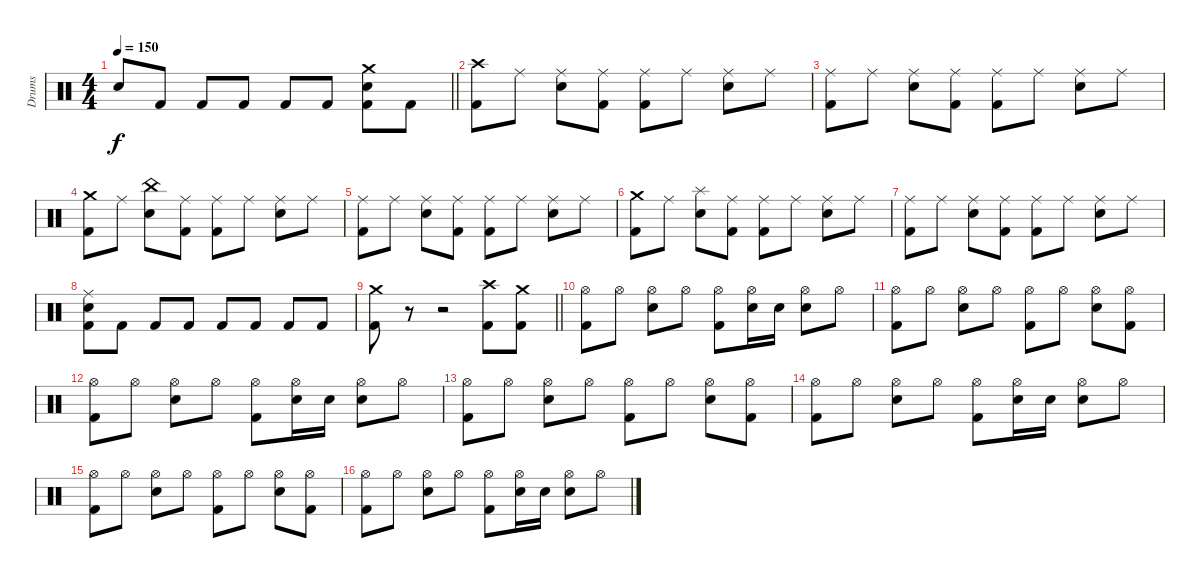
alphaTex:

\track ("Drums" "Drums") {instrument percussion}
\staff {score}
\articulation defaults
\ts (4 4)
\tempo 150
\clef neutral
\barLineRight lightlight
\ks c "Snare (hit) 2".8{dy f} "Kick (hit) 2".8 "Kick (hit) 2".8 "Kick (hit) 2".8 "Kick (hit) 2".8 "Kick (hit) 2".8
("Crash medium (hit)" "Snare (hit) 2" "Kick (hit) 2").8 "Kick (hit) 2".8 |
("Crash high (hit)" "Kick (hit) 2").8 "Ride (middle)".8 ("Ride (middle)" "Snare (hit) 2").8 ("Ride (middle)" "Kick (hit) 2").8 ("Ride (middle)" "Kick (hit) 2").8 "Ride (middle)".8 ("Ride (middle)" "Snare (hit) 2").8 "Ride (middle)".8 |
("Ride (middle)" "Kick (hit) 2").8 "Ride (middle)".8 ("Ride (middle)" "Snare (hit) 2").8 ("Ride (middle)" "Kick (hit) 2").8 ("Ride (middle)" "Kick (hit) 2").8 "Ride (middle)".8 ("Ride (middle)" "Snare (hit) 2").8 "Ride (middle)".8 |
("Crash medium (hit)" "Kick (hit) 2").8 "Ride (middle)".8 ("China (hit)" "Snare (hit) 2").8 ("Ride (middle)" "Kick (hit) 2").8 ("Ride (middle)" "Kick (hit) 2").8 "Ride (middle)".8 ("Ride (middle)" "Snare (hit) 2").8 "Ride (middle)".8 |
("Ride (middle)" "Kick (hit) 2").8 "Ride (middle)".8 ("Ride (middle)" "Snare (hit) 2").8 ("Ride (middle)" "Kick (hit) 2").8 ("Ride (middle)" "Kick (hit) 2").8 "Ride (middle)".8 ("Ride (middle)" "Snare (hit) 2").8 "Ride (middle)".8 |
("Crash medium (hit)" "Kick (hit) 2").8 "Ride (middle)".8 ("Splash (hit)" "Snare (hit) 2").8 ("Ride (middle)" "Kick (hit) 2").8 ("Ride (middle)" "Kick (hit) 2").8 "Ride (middle)".8 ("Ride (middle)" "Snare (hit) 2").8 "Ride (middle)".8 |
("Ride (middle)" "Kick (hit) 2").8 "Ride (middle)".8 ("Ride (middle)" "Snare (hit) 2").8 ("Ride (middle)" "Kick (hit) 2").8 ("Ride (middle)" "Kick (hit) 2").8 "Ride (middle)".8 ("Ride (middle)" "Snare (hit) 2").8 "Ride (middle)".8 |
("Ride (middle)" "Snare (hit) 2" "Kick (hit) 2").8 "Kick (hit) 2".8 "Kick (hit) 2".8 "Kick (hit) 2".8 "Kick (hit) 2".8 "Kick (hit) 2".8 "Kick (hit) 2".8 "Kick (hit) 2".8 |
\barLineRight lightlight
("Crash medium (hit)" "Kick (hit) 2").8 r.8 r.2 ("Crash high (hit)" "Kick (hit) 2").8 ("Crash medium (hit)" "Kick (hit) 2").8 |
("Hi-Hat (open)" "Kick (hit) 2").8 "Hi-Hat (open)".8 ("Hi-Hat (open)" "Snare (hit) 2").8 "Hi-Hat (open)".8 ("Hi-Hat (open)" "Kick (hit) 2").8 ("Hi-Hat (open)" "Snare (hit) 2").16 "Snare (hit) 2".16 ("Hi-Hat (open)" "Snare (hit) 2").8 "Hi-Hat (open)".8 |
("Hi-Hat (open)" "Kick (hit) 2").8 "Hi-Hat (open)".8 ("Hi-Hat (open)" "Snare (hit) 2").8 "Hi-Hat (open)".8 ("Hi-Hat (open)" "Kick (hit) 2").8 "Hi-Hat (open)".8 ("Hi-Hat (open)" "Snare (hit) 2").8 ("Hi-Hat (open)" "Kick (hit) 2").8 |
("Hi-Hat (open)" "Kick (hit) 2").8 "Hi-Hat (open)".8 ("Hi-Hat (open)" "Snare (hit) 2").8 "Hi-Hat (open)".8 ("Hi-Hat (open)" "Kick (hit) 2").8 ("Hi-Hat (open)" "Snare (hit) 2").16 "Snare (hit) 2".16 ("Hi-Hat (open)" "Snare (hit) 2").8 "Hi-Hat (open)".8 |
("Hi-Hat (open)" "Kick (hit) 2").8 "Hi-Hat (open)".8 ("Hi-Hat (open)" "Snare (hit) 2").8 "Hi-Hat (open)".8 ("Hi-Hat (open)" "Kick (hit) 2").8 "Hi-Hat (open)".8 ("Hi-Hat (open)" "Snare (hit) 2").8 ("Hi-Hat (open)" "Kick (hit) 2").8 |
("Hi-Hat (open)" "Kick (hit) 2").8 "Hi-Hat (open)".8 ("Hi-Hat (open)" "Snare (hit) 2").8 "Hi-Hat (open)".8 ("Hi-Hat (open)" "Kick (hit) 2").8 ("Hi-Hat (open)" "Snare (hit) 2").16 "Snare (hit) 2".16 ("Hi-Hat (open)" "Snare (hit) 2").8 "Hi-Hat (open)".8 |
("Hi-Hat (open)" "Kick (hit) 2").8 "Hi-Hat (open)".8 ("Hi-Hat (open)" "Snare (hit) 2").8 "Hi-Hat (open)".8 ("Hi-Hat (open)" "Kick (hit) 2").8 "Hi-Hat (open)".8 ("Hi-Hat (open)" "Snare (hit) 2").8 ("Hi-Hat (open)" "Kick (hit) 2").8 |
("Hi-Hat (open)" "Kick (hit) 2").8 "Hi-Hat (open)".8 ("Hi-Hat (open)" "Snare (hit) 2").8 "Hi-Hat (open)".8 ("Hi-Hat (open)" "Kick (hit) 2").8 ("Hi-Hat (open)" "Snare (hit) 2").16 "Snare (hit) 2".16 ("Hi-Hat (open)" "Snare (hit) 2").8 "Hi-Hat (open)".8
